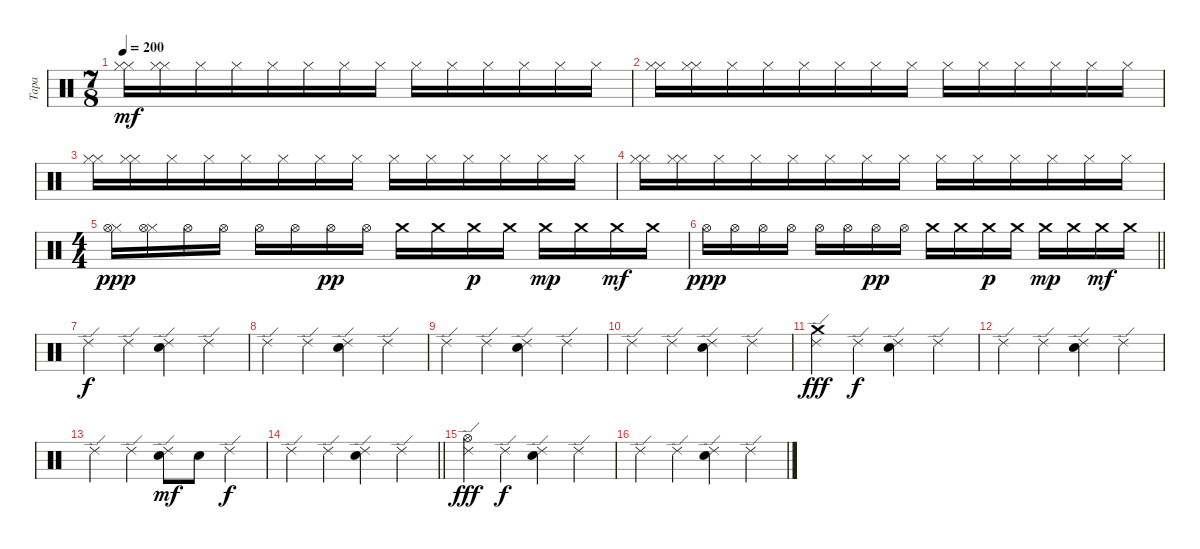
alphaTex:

\track ("Tapa" "Tapa") {instrument percussion}
\staff {score}
\articulation defaults
\ts (7 8)
\tempo 200
\clef neutral
\ks c
("Hi-Hat (closed)" "Hi-Hat (closed)").16{dy mf} ("Hi-Hat (closed)" "Hi-Hat (closed)").16 "Hi-Hat (closed)".16 "Hi-Hat (closed)".16 "Hi-Hat (closed)".16 "Hi-Hat (closed)".16 "Hi-Hat (closed)".16 "Hi-Hat (closed)".16 "Hi-Hat (closed)".16 "Hi-Hat (closed)".16 "Hi-Hat (closed)".16 "Hi-Hat (closed)".16 "Hi-Hat (closed)".16 "Hi-Hat (closed)".16 |
("Hi-Hat (closed)" "Hi-Hat (closed)").16 ("Hi-Hat (closed)" "Hi-Hat (closed)").16 "Hi-Hat (closed)".16 "Hi-Hat (closed)".16 "Hi-Hat (closed)".16 "Hi-Hat (closed)".16 "Hi-Hat (closed)".16 "Hi-Hat (closed)".16 "Hi-Hat (closed)".16 "Hi-Hat (closed)".16 "Hi-Hat (closed)".16 "Hi-Hat (closed)".16 "Hi-Hat (closed)".16 "Hi-Hat (closed)".16 |
("Hi-Hat (closed)" "Hi-Hat (closed)").16 ("Hi-Hat (closed)" "Hi-Hat (closed)").16 "Hi-Hat (closed)".16 "Hi-Hat (closed)".16 "Hi-Hat (closed)".16 "Hi-Hat (closed)".16 "Hi-Hat (closed)".16 "Hi-Hat (closed)".16 "Hi-Hat (closed)".16 "Hi-Hat (closed)".16 "Hi-Hat (closed)".16 "Hi-Hat (closed)".16 "Hi-Hat (closed)".16 "Hi-Hat (closed)".16 |
("Hi-Hat (closed)" "Hi-Hat (closed)").16 ("Hi-Hat (closed)" "Hi-Hat (closed)").16 "Hi-Hat (closed)".16 "Hi-Hat (closed)".16 "Hi-Hat (closed)".16 "Hi-Hat (closed)".16 "Hi-Hat (closed)".16 "Hi-Hat (closed)".16 "Hi-Hat (closed)".16 "Hi-Hat (closed)".16 "Hi-Hat (closed)".16 "Hi-Hat (closed)".16 "Hi-Hat (closed)".16 "Hi-Hat (closed)".16 |
\ts (4 4)
("Hi-Hat (closed)" "Hi-Hat (open)").16{dy ppp} ("Hi-Hat (closed)" "Hi-Hat (open)").16 "Hi-Hat (open)".16 "Hi-Hat (open)".16 "Hi-Hat (open)".16 "Hi-Hat (open)".16 "Hi-Hat (open)".16{dy pp} "Hi-Hat (open)".16 "Crash medium (hit)".16 "Crash medium (hit)".16 "Crash medium (hit)".16{dy p} "Crash medium (hit)".16 "Crash medium (hit)".16{dy mp} "Crash medium (hit)".16 "Crash medium (hit)".16{dy mf} "Crash medium (hit)".16 |
\barLineRight lightlight "Hi-Hat (open)".16{dy ppp} "Hi-Hat (open)".16 "Hi-Hat (open)".16 "Hi-Hat (open)".16 "Hi-Hat (open)".16 "Hi-Hat (open)".16 "Hi-Hat (open)".16{dy pp} "Hi-Hat (open)".16 "Crash medium (hit)".16 "Crash medium (hit)".16 "Crash medium (hit)".16{dy p} "Crash medium (hit)".16 "Crash medium (hit)".16{dy mp} "Crash medium (hit)".16 "Crash medium (hit)".16{dy mf} "Crash medium (hit)".16
|
"Ride (edge) 2".4{dy f} "Ride (edge) 2".4 ("Ride (edge) 2" "Snare (hit) 2").4 "Ride (edge) 2".4 |
"Ride (edge) 2".4 "Ride (edge) 2".4 ("Ride (edge) 2" "Snare (hit) 2").4 "Ride (edge) 2".4 |
"Ride (edge) 2".4 "Ride (edge) 2".4 ("Ride (edge) 2" "Snare (hit) 2").4 "Ride (edge) 2".4 |
"Ride (edge) 2".4 "Ride (edge) 2".4 ("Ride (edge) 2" "Snare (hit) 2").4 "Ride (edge) 2".4 |
("Ride (edge) 2" "Crash medium (hit)").4{dy fff} "Ride (edge) 2".4{dy f} ("Ride (edge) 2" "Snare (hit) 2").4 "Ride (edge) 2".4 |
"Ride (edge) 2".4 "Ride (edge) 2".4 ("Ride (edge) 2" "Snare (hit) 2").4 "Ride (edge) 2".4 |
"Ride (edge) 2".4 "Ride (edge) 2".4 ("Ride (edge) 2" "Snare (hit) 2").8{dy mf} "Snare (hit) 2".8 "Ride (edge) 2".4{dy f} |
\barLineRight lightlight "Ride (edge) 2".4 "Ride (edge) 2".4
("Ride (edge) 2" "Snare (hit) 2").4 "Ride (edge) 2".4 |
("Ride (edge) 2" "Hi-Hat (open)").4{dy fff} "Ride (edge) 2".4{dy f} ("Ride (edge) 2" "Snare (hit) 2").4 "Ride (edge) 2".4 |
"Ride (edge) 2".4 "Ride (edge) 2".4 ("Ride (edge) 2" "Snare (hit) 2").4 "Ride (edge) 2".4
